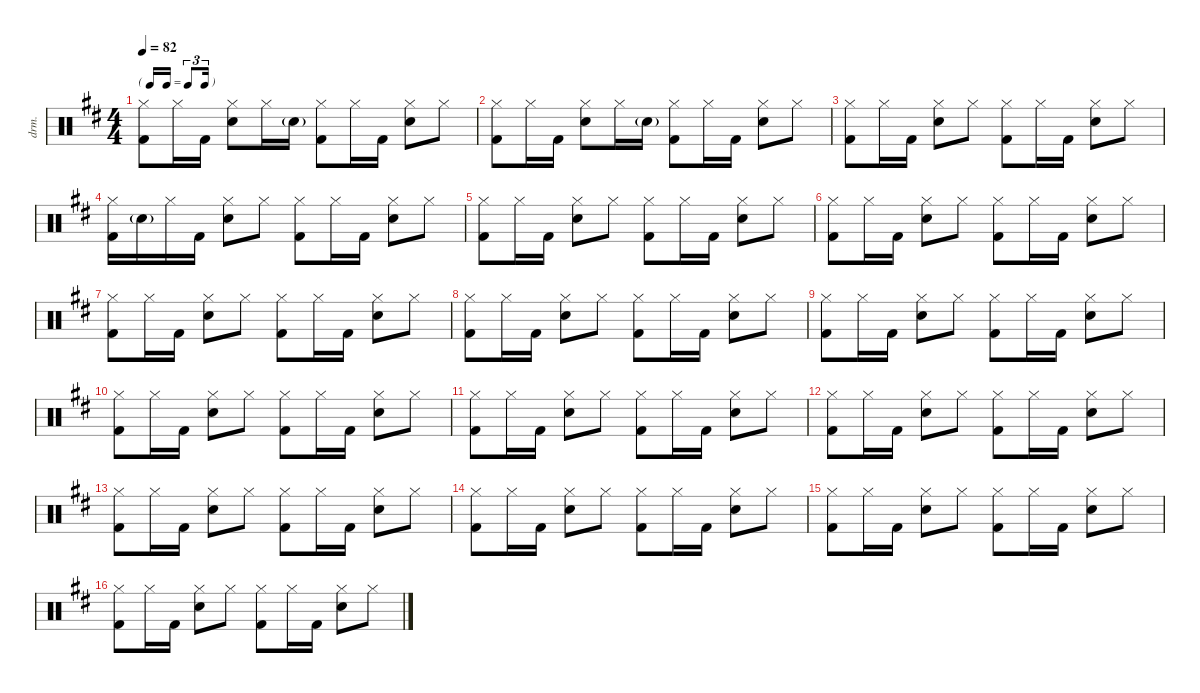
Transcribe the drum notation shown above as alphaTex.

\defaultSystemsLayout 4
\hideDynamics
\bracketExtendMode nobrackets
\otherSystemsTrackNameOrientation horizontal
\track ("Buddy" "drm.") {instrument percussion}
\staff {score}
\articulation defaults
\ts (4 4)
\tf triplet16th
\tempo 82
\clef neutral
\ks d
("Hi-Hat (closed)"{acc forcenatural} "Kick (hit) 2"{acc forcenatural}).8{dy f beam Down} "Hi-Hat (closed)"{acc forcenatural}.16{beam Down} "Kick (hit) 2"{acc forcenatural}.16{beam Down} ("Hi-Hat (closed)"{acc forcenatural} "Snare (hit) 2"{acc forcenatural}).8{beam Down} "Hi-Hat (closed)"{acc forcenatural}.16{beam Down} "Snare (hit) 2"{g acc forcenatural}.16{dy mf beam Down} ("Hi-Hat (closed)"{acc forcenatural} "Kick (hit) 2"{acc forcenatural}).8{dy f beam Down} "Hi-Hat (closed)"{acc forcenatural}.16{beam Down} "Kick (hit) 2"{acc forcenatural}.16{beam Down} ("Hi-Hat (closed)"{acc forcenatural} "Snare (hit) 2"{acc forcenatural}).8{beam Down} "Hi-Hat (closed)"{acc forcenatural}.8{beam Down} |
("Hi-Hat (closed)"{acc forcenatural} "Kick (hit) 2"{acc forcenatural}).8{beam Down} "Hi-Hat (closed)"{acc forcenatural}.16{beam Down} "Kick (hit) 2"{acc forcenatural}.16{beam Down} ("Hi-Hat (closed)"{acc forcenatural} "Snare (hit) 2"{acc forcenatural}).8{beam Down} "Hi-Hat (closed)"{acc forcenatural}.16{beam Down} "Snare (hit) 2"{g acc forcenatural}.16{dy mf beam Down} ("Hi-Hat (closed)"{acc forcenatural} "Kick (hit) 2"{acc forcenatural}).8{dy f beam Down} "Hi-Hat (closed)"{acc forcenatural}.16{beam Down} "Kick (hit) 2"{acc forcenatural}.16{beam Down} ("Hi-Hat (closed)"{acc forcenatural} "Snare (hit) 2"{acc forcenatural}).8{beam Down} "Hi-Hat (closed)"{acc forcenatural}.8{beam Down} |
("Hi-Hat (closed)"{acc forcenatural} "Kick (hit) 2"{acc forcenatural}).8{beam Down} "Hi-Hat (closed)"{acc forcenatural}.16{beam Down} "Kick (hit) 2"{acc forcenatural}.16{beam Down} ("Hi-Hat (closed)"{acc forcenatural} "Snare (hit) 2"{acc forcenatural}).8{beam Down} "Hi-Hat (closed)"{acc forcenatural}.8{beam Down} ("Hi-Hat (closed)"{acc forcenatural} "Kick (hit) 2"{acc forcenatural}).8{beam Down} "Hi-Hat (closed)"{acc forcenatural}.16{beam Down} "Kick (hit) 2"{acc forcenatural}.16{beam Down} ("Hi-Hat (closed)"{acc forcenatural} "Snare (hit) 2"{acc forcenatural}).8{beam Down} "Hi-Hat (closed)"{acc forcenatural}.8{beam Down} |
("Hi-Hat (closed)"{acc forcenatural} "Kick (hit) 2"{acc forcenatural}).16{beam Down} "Snare (hit) 2"{g acc forcenatural}.16{dy mf beam Down} "Hi-Hat (closed)"{acc forcenatural}.16{dy f beam Down} "Kick (hit) 2"{acc forcenatural}.16{beam Down} ("Hi-Hat (closed)"{acc forcenatural} "Snare (hit) 2"{acc forcenatural}).8{beam Down} "Hi-Hat (closed)"{acc forcenatural}.8{beam Down} ("Hi-Hat (closed)"{acc forcenatural} "Kick (hit) 2"{acc forcenatural}).8{beam Down} "Hi-Hat (closed)"{acc forcenatural}.16{beam Down} "Kick (hit) 2"{acc forcenatural}.16{beam Down} ("Hi-Hat (closed)"{acc forcenatural} "Snare (hit) 2"{acc forcenatural}).8{beam Down} "Hi-Hat (closed)"{acc forcenatural}.8{beam Down} |
("Hi-Hat (closed)"{acc forcenatural} "Kick (hit) 2"{acc forcenatural}).8{beam Down} "Hi-Hat (closed)"{acc forcenatural}.16{beam Down} "Kick (hit) 2"{acc forcenatural}.16{beam Down} ("Hi-Hat (closed)"{acc forcenatural} "Snare (hit) 2"{acc forcenatural}).8{beam Down} "Hi-Hat (closed)"{acc forcenatural}.8{beam Down} ("Hi-Hat (closed)"{acc forcenatural} "Kick (hit) 2"{acc forcenatural}).8{beam Down} "Hi-Hat (closed)"{acc forcenatural}.16{beam Down} "Kick (hit) 2"{acc forcenatural}.16{beam Down} ("Hi-Hat (closed)"{acc forcenatural} "Snare (hit) 2"{acc forcenatural}).8{beam Down} "Hi-Hat (closed)"{acc forcenatural}.8{beam Down} |
("Hi-Hat (closed)"{acc forcenatural} "Kick (hit) 2"{acc forcenatural}).8{beam Down} "Hi-Hat (closed)"{acc forcenatural}.16{beam Down} "Kick (hit) 2"{acc forcenatural}.16{beam Down} ("Hi-Hat (closed)"{acc forcenatural} "Snare (hit) 2"{acc forcenatural}).8{beam Down} "Hi-Hat (closed)"{acc forcenatural}.8{beam Down} ("Hi-Hat (closed)"{acc forcenatural} "Kick (hit) 2"{acc forcenatural}).8{beam Down} "Hi-Hat (closed)"{acc forcenatural}.16{beam Down} "Kick (hit) 2"{acc forcenatural}.16{beam Down} ("Hi-Hat (closed)"{acc forcenatural} "Snare (hit) 2"{acc forcenatural}).8{beam Down} "Hi-Hat (closed)"{acc forcenatural}.8{beam Down} |
("Hi-Hat (closed)"{acc forcenatural} "Kick (hit) 2"{acc forcenatural}).8{beam Down} "Hi-Hat (closed)"{acc forcenatural}.16{beam Down} "Kick (hit) 2"{acc forcenatural}.16{beam Down} ("Hi-Hat (closed)"{acc forcenatural} "Snare (hit) 2"{acc forcenatural}).8{beam Down} "Hi-Hat (closed)"{acc forcenatural}.8{beam Down} ("Hi-Hat (closed)"{acc forcenatural} "Kick (hit) 2"{acc forcenatural}).8{beam Down} "Hi-Hat (closed)"{acc forcenatural}.16{beam Down} "Kick (hit) 2"{acc forcenatural}.16{beam Down} ("Hi-Hat (closed)"{acc forcenatural} "Snare (hit) 2"{acc forcenatural}).8{beam Down} "Hi-Hat (closed)"{acc forcenatural}.8{beam Down} |
("Hi-Hat (closed)"{acc forcenatural} "Kick (hit) 2"{acc forcenatural}).8{beam Down} "Hi-Hat (closed)"{acc forcenatural}.16{beam Down} "Kick (hit) 2"{acc forcenatural}.16{beam Down} ("Hi-Hat (closed)"{acc forcenatural} "Snare (hit) 2"{acc forcenatural}).8{beam Down} "Hi-Hat (closed)"{acc forcenatural}.8{beam Down} ("Hi-Hat (closed)"{acc forcenatural} "Kick (hit) 2"{acc forcenatural}).8{beam Down} "Hi-Hat (closed)"{acc forcenatural}.16{beam Down} "Kick (hit) 2"{acc forcenatural}.16{beam Down} ("Hi-Hat (closed)"{acc forcenatural} "Snare (hit) 2"{acc forcenatural}).8{beam Down} "Hi-Hat (closed)"{acc forcenatural}.8{beam Down} |
("Hi-Hat (closed)"{acc forcenatural} "Kick (hit) 2"{acc forcenatural}).8{beam Down} "Hi-Hat (closed)"{acc forcenatural}.16{beam Down} "Kick (hit) 2"{acc forcenatural}.16{beam Down} ("Hi-Hat (closed)"{acc forcenatural} "Snare (hit) 2"{acc forcenatural}).8{beam Down} "Hi-Hat (closed)"{acc forcenatural}.8{beam Down} ("Hi-Hat (closed)"{acc forcenatural} "Kick (hit) 2"{acc forcenatural}).8{beam Down} "Hi-Hat (closed)"{acc forcenatural}.16{beam Down} "Kick (hit) 2"{acc forcenatural}.16{beam Down} ("Hi-Hat (closed)"{acc forcenatural} "Snare (hit) 2"{acc forcenatural}).8{beam Down} "Hi-Hat (closed)"{acc forcenatural}.8{beam Down} |
("Hi-Hat (closed)"{acc forcenatural} "Kick (hit) 2"{acc forcenatural}).8{beam Down} "Hi-Hat (closed)"{acc forcenatural}.16{beam Down} "Kick (hit) 2"{acc forcenatural}.16{beam Down} ("Hi-Hat (closed)"{acc forcenatural} "Snare (hit) 2"{acc forcenatural}).8{beam Down} "Hi-Hat (closed)"{acc forcenatural}.8{beam Down} ("Hi-Hat (closed)"{acc forcenatural} "Kick (hit) 2"{acc forcenatural}).8{beam Down} "Hi-Hat (closed)"{acc forcenatural}.16{beam Down} "Kick (hit) 2"{acc forcenatural}.16{beam Down} ("Hi-Hat (closed)"{acc forcenatural} "Snare (hit) 2"{acc forcenatural}).8{beam Down} "Hi-Hat (closed)"{acc forcenatural}.8{beam Down} |
("Hi-Hat (closed)"{acc forcenatural} "Kick (hit) 2"{acc forcenatural}).8{beam Down} "Hi-Hat (closed)"{acc forcenatural}.16{beam Down} "Kick (hit) 2"{acc forcenatural}.16{beam Down} ("Hi-Hat (closed)"{acc forcenatural} "Snare (hit) 2"{acc forcenatural}).8{beam Down} "Hi-Hat (closed)"{acc forcenatural}.8{beam Down} ("Hi-Hat (closed)"{acc forcenatural} "Kick (hit) 2"{acc forcenatural}).8{beam Down} "Hi-Hat (closed)"{acc forcenatural}.16{beam Down} "Kick (hit) 2"{acc forcenatural}.16{beam Down} ("Hi-Hat (closed)"{acc forcenatural} "Snare (hit) 2"{acc forcenatural}).8{beam Down} "Hi-Hat (closed)"{acc forcenatural}.8{beam Down} |
("Hi-Hat (closed)"{acc forcenatural} "Kick (hit) 2"{acc forcenatural}).8{beam Down} "Hi-Hat (closed)"{acc forcenatural}.16{beam Down} "Kick (hit) 2"{acc forcenatural}.16{beam Down} ("Hi-Hat (closed)"{acc forcenatural} "Snare (hit) 2"{acc forcenatural}).8{beam Down} "Hi-Hat (closed)"{acc forcenatural}.8{beam Down} ("Hi-Hat (closed)"{acc forcenatural} "Kick (hit) 2"{acc forcenatural}).8{beam Down} "Hi-Hat (closed)"{acc forcenatural}.16{beam Down} "Kick (hit) 2"{acc forcenatural}.16{beam Down} ("Hi-Hat (closed)"{acc forcenatural} "Snare (hit) 2"{acc forcenatural}).8{beam Down} "Hi-Hat (closed)"{acc forcenatural}.8{beam Down} |
("Hi-Hat (closed)"{acc forcenatural} "Kick (hit) 2"{acc forcenatural}).8{beam Down} "Hi-Hat (closed)"{acc forcenatural}.16{beam Down} "Kick (hit) 2"{acc forcenatural}.16{beam Down} ("Hi-Hat (closed)"{acc forcenatural} "Snare (hit) 2"{acc forcenatural}).8{beam Down} "Hi-Hat (closed)"{acc forcenatural}.8{beam Down} ("Hi-Hat (closed)"{acc forcenatural} "Kick (hit) 2"{acc forcenatural}).8{beam Down} "Hi-Hat (closed)"{acc forcenatural}.16{beam Down} "Kick (hit) 2"{acc forcenatural}.16{beam Down} ("Hi-Hat (closed)"{acc forcenatural} "Snare (hit) 2"{acc forcenatural}).8{beam Down} "Hi-Hat (closed)"{acc forcenatural}.8{beam Down} |
("Hi-Hat (closed)"{acc forcenatural} "Kick (hit) 2"{acc forcenatural}).8{beam Down} "Hi-Hat (closed)"{acc forcenatural}.16{beam Down} "Kick (hit) 2"{acc forcenatural}.16{beam Down} ("Hi-Hat (closed)"{acc forcenatural} "Snare (hit) 2"{acc forcenatural}).8{beam Down} "Hi-Hat (closed)"{acc forcenatural}.8{beam Down} ("Hi-Hat (closed)"{acc forcenatural} "Kick (hit) 2"{acc forcenatural}).8{beam Down} "Hi-Hat (closed)"{acc forcenatural}.16{beam Down} "Kick (hit) 2"{acc forcenatural}.16{beam Down} ("Hi-Hat (closed)"{acc forcenatural} "Snare (hit) 2"{acc forcenatural}).8{beam Down} "Hi-Hat (closed)"{acc forcenatural}.8{beam Down} |
("Hi-Hat (closed)"{acc forcenatural} "Kick (hit) 2"{acc forcenatural}).8{beam Down} "Hi-Hat (closed)"{acc forcenatural}.16{beam Down} "Kick (hit) 2"{acc forcenatural}.16{beam Down} ("Hi-Hat (closed)"{acc forcenatural} "Snare (hit) 2"{acc forcenatural}).8{beam Down} "Hi-Hat (closed)"{acc forcenatural}.8{beam Down} ("Hi-Hat (closed)"{acc forcenatural} "Kick (hit) 2"{acc forcenatural}).8{beam Down} "Hi-Hat (closed)"{acc forcenatural}.16{beam Down} "Kick (hit) 2"{acc forcenatural}.16{beam Down} ("Hi-Hat (closed)"{acc forcenatural} "Snare (hit) 2"{acc forcenatural}).8{beam Down} "Hi-Hat (closed)"{acc forcenatural}.8{beam Down} |
("Hi-Hat (closed)"{acc forcenatural} "Kick (hit) 2"{acc forcenatural}).8{beam Down} "Hi-Hat (closed)"{acc forcenatural}.16{beam Down} "Kick (hit) 2"{acc forcenatural}.16{beam Down} ("Hi-Hat (closed)"{acc forcenatural} "Snare (hit) 2"{acc forcenatural}).8{beam Down} "Hi-Hat (closed)"{acc forcenatural}.8{beam Down} ("Hi-Hat (closed)"{acc forcenatural} "Kick (hit) 2"{acc forcenatural}).8{beam Down} "Hi-Hat (closed)"{acc forcenatural}.16{beam Down} "Kick (hit) 2"{acc forcenatural}.16{beam Down} ("Hi-Hat (closed)"{acc forcenatural} "Snare (hit) 2"{acc forcenatural}).8{beam Down} "Hi-Hat (closed)"{acc forcenatural}.8{beam Down}
